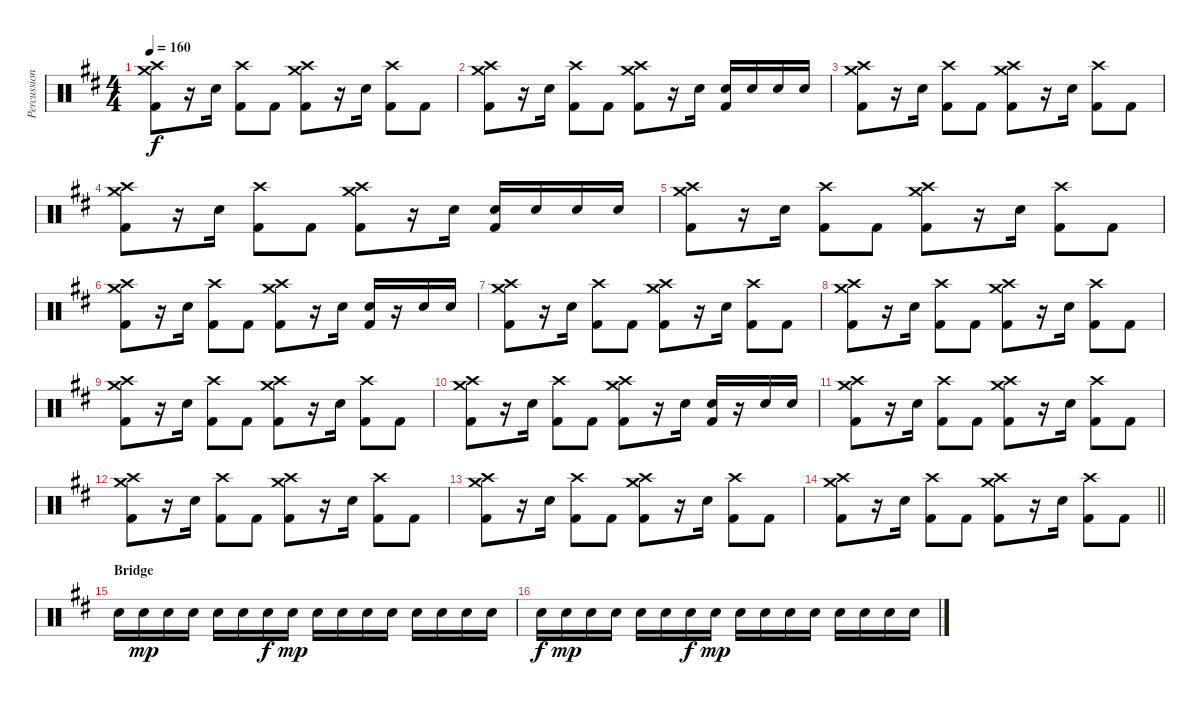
\track ("Percussion" "Percussion") {instrument percussion}
\staff {score}
\articulation defaults
\ts (4 4)
\tempo 160
\clef neutral
\ks d
("Crash medium (hit)" "Crash high (hit)" "Kick (hit) 2").8{dy f} r.16 "Electric Snare (hit)".16 ("Crash high (hit)" "Kick (hit) 2").8 "Kick (hit) 2".8 ("Crash medium (hit)" "Crash high (hit)" "Kick (hit) 2").8 r.16 "Electric Snare (hit)".16 ("Crash high (hit)" "Kick (hit) 2").8 "Kick (hit) 2".8 |
("Crash medium (hit)" "Crash high (hit)" "Kick (hit) 2").8 r.16 "Electric Snare (hit)".16 ("Crash high (hit)" "Kick (hit) 2").8 "Kick (hit) 2".8 ("Crash medium (hit)" "Crash high (hit)" "Kick (hit) 2").8 r.16 "Electric Snare (hit)".16 ("Electric Snare (hit)" "Kick (hit) 2").16 "Electric Snare (hit)".16 "Electric Snare (hit)".16 "Electric Snare (hit)".16 |
("Crash medium (hit)" "Crash high (hit)" "Kick (hit) 2").8 r.16 "Electric Snare (hit)".16 ("Crash high (hit)" "Kick (hit) 2").8 "Kick (hit) 2".8 ("Crash medium (hit)" "Crash high (hit)" "Kick (hit) 2").8 r.16 "Electric Snare (hit)".16 ("Crash high (hit)" "Kick (hit) 2").8 "Kick (hit) 2".8 |
("Crash medium (hit)" "Crash high (hit)" "Kick (hit) 2").8 r.16 "Electric Snare (hit)".16 ("Crash high (hit)" "Kick (hit) 2").8 "Kick (hit) 2".8 ("Crash medium (hit)" "Crash high (hit)" "Kick (hit) 2").8 r.16 "Electric Snare (hit)".16 ("Electric Snare (hit)" "Kick (hit) 2").16 "Electric Snare (hit)".16 "Electric Snare (hit)".16 "Electric Snare (hit)".16 |
("Crash medium (hit)" "Crash high (hit)" "Kick (hit) 2").8 r.16 "Electric Snare (hit)".16 ("Crash high (hit)" "Kick (hit) 2").8 "Kick (hit) 2".8 ("Crash medium (hit)" "Crash high (hit)" "Kick (hit) 2").8 r.16 "Electric Snare (hit)".16 ("Crash high (hit)" "Kick (hit) 2").8 "Kick (hit) 2".8 |
("Crash medium (hit)" "Crash high (hit)" "Kick (hit) 2").8 r.16 "Electric Snare (hit)".16 ("Crash high (hit)" "Kick (hit) 2").8 "Kick (hit) 2".8 ("Crash medium (hit)" "Crash high (hit)" "Kick (hit) 2").8 r.16 "Electric Snare (hit)".16 ("Electric Snare (hit)" "Kick (hit) 2").16 r.16 "Electric Snare (hit)".16 "Electric Snare (hit)".16 |
("Crash medium (hit)" "Crash high (hit)" "Kick (hit) 2").8 r.16 "Electric Snare (hit)".16 ("Crash high (hit)" "Kick (hit) 2").8 "Kick (hit) 2".8 ("Crash medium (hit)" "Crash high (hit)" "Kick (hit) 2").8 r.16 "Electric Snare (hit)".16 ("Crash high (hit)" "Kick (hit) 2").8 "Kick (hit) 2".8 |
("Crash medium (hit)" "Crash high (hit)" "Kick (hit) 2").8 r.16 "Electric Snare (hit)".16 ("Crash high (hit)" "Kick (hit) 2").8 "Kick (hit) 2".8 ("Crash medium (hit)" "Crash high (hit)" "Kick (hit) 2").8 r.16 "Electric Snare (hit)".16 ("Crash high (hit)" "Kick (hit) 2").8 "Kick (hit) 2".8 |
("Crash medium (hit)" "Crash high (hit)" "Kick (hit) 2").8 r.16 "Electric Snare (hit)".16 ("Crash high (hit)" "Kick (hit) 2").8 "Kick (hit) 2".8 ("Crash medium (hit)" "Crash high (hit)" "Kick (hit) 2").8 r.16 "Electric Snare (hit)".16 ("Crash high (hit)" "Kick (hit) 2").8 "Kick (hit) 2".8 |
("Crash medium (hit)" "Crash high (hit)" "Kick (hit) 2").8 r.16 "Electric Snare (hit)".16 ("Crash high (hit)" "Kick (hit) 2").8 "Kick (hit) 2".8 ("Crash medium (hit)" "Crash high (hit)" "Kick (hit) 2").8 r.16 "Electric Snare (hit)".16 ("Electric Snare (hit)" "Kick (hit) 2").16 r.16 "Electric Snare (hit)".16 "Electric Snare (hit)".16 |
("Crash medium (hit)" "Crash high (hit)" "Kick (hit) 2").8 r.16 "Electric Snare (hit)".16 ("Crash high (hit)" "Kick (hit) 2").8 "Kick (hit) 2".8 ("Crash medium (hit)" "Crash high (hit)" "Kick (hit) 2").8 r.16 "Electric Snare (hit)".16 ("Crash high (hit)" "Kick (hit) 2").8 "Kick (hit) 2".8 |
("Crash medium (hit)" "Crash high (hit)" "Kick (hit) 2").8 r.16 "Electric Snare (hit)".16 ("Crash high (hit)" "Kick (hit) 2").8 "Kick (hit) 2".8 ("Crash medium (hit)" "Crash high (hit)" "Kick (hit) 2").8 r.16 "Electric Snare (hit)".16 ("Crash high (hit)" "Kick (hit) 2").8 "Kick (hit) 2".8 |
("Crash medium (hit)" "Crash high (hit)" "Kick (hit) 2").8 r.16 "Electric Snare (hit)".16 ("Crash high (hit)" "Kick (hit) 2").8 "Kick (hit) 2".8 ("Crash medium (hit)" "Crash high (hit)" "Kick (hit) 2").8 r.16 "Electric Snare (hit)".16 ("Crash high (hit)" "Kick (hit) 2").8 "Kick (hit) 2".8 |
\barLineRight lightlight
("Crash medium (hit)" "Crash high (hit)" "Kick (hit) 2").8 r.16 "Electric Snare (hit)".16 ("Crash high (hit)" "Kick (hit) 2").8 "Kick (hit) 2".8 ("Crash medium (hit)" "Crash high (hit)" "Kick (hit) 2").8 r.16 "Electric Snare (hit)".16 ("Crash high (hit)" "Kick (hit) 2").8 "Kick (hit) 2".8 |
\section ("" "Bridge")
"Electric Snare (hit)".16 "Electric Snare (hit)".16{dy mp} "Electric Snare (hit)".16 "Electric Snare (hit)".16 "Electric Snare (hit)".16 "Electric Snare (hit)".16 "Electric Snare (hit)".16{dy f} "Electric Snare (hit)".16{dy mp} "Electric Snare (hit)".16 "Electric Snare (hit)".16 "Electric Snare (hit)".16 "Electric Snare (hit)".16 "Electric Snare (hit)".16 "Electric Snare (hit)".16 "Electric Snare (hit)".16 "Electric Snare (hit)".16 |
"Electric Snare (hit)".16{dy f} "Electric Snare (hit)".16{dy mp} "Electric Snare (hit)".16 "Electric Snare (hit)".16 "Electric Snare (hit)".16 "Electric Snare (hit)".16 "Electric Snare (hit)".16{dy f} "Electric Snare (hit)".16{dy mp} "Electric Snare (hit)".16 "Electric Snare (hit)".16 "Electric Snare (hit)".16 "Electric Snare (hit)".16 "Electric Snare (hit)".16 "Electric Snare (hit)".16 "Electric Snare (hit)".16 "Electric Snare (hit)".16
